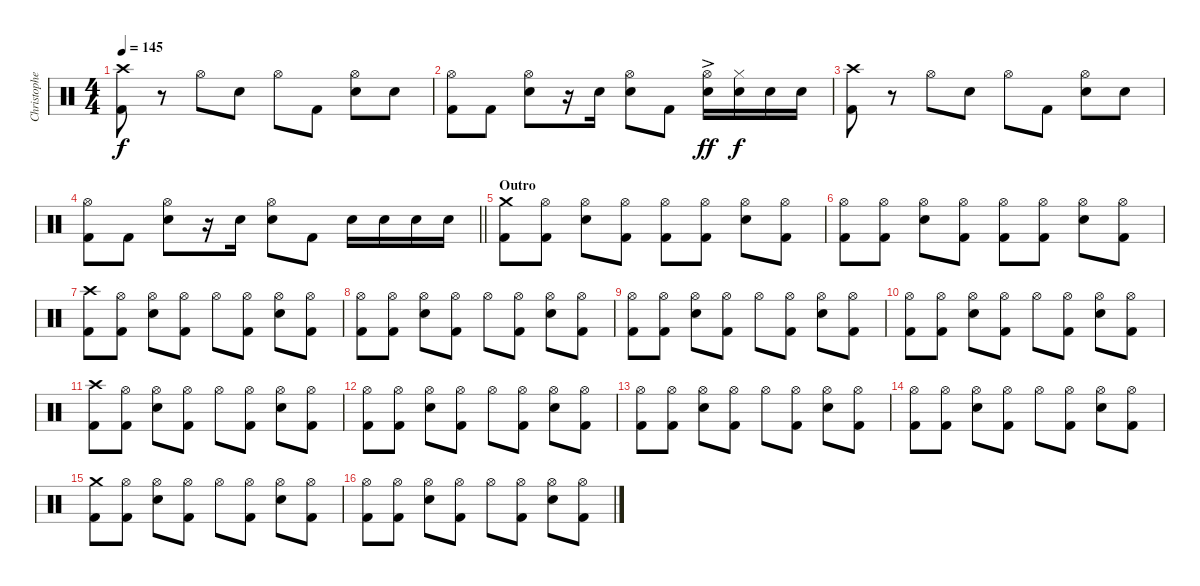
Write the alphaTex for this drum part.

\track ("Christopher - Drums" "Christophe") {instrument percussion}
\staff {score}
\articulation defaults
\ts (4 4)
\tempo 145
\clef neutral
\ks c
("Crash high (hit)" "Kick (hit) 2").8{dy f} r.8 "Hi-Hat (open)".8 "Electric Snare (hit)".8 "Hi-Hat (open)".8 "Kick (hit) 2".8 ("Hi-Hat (open)" "Electric Snare (hit)").8 "Electric Snare (hit)".8 |
("Hi-Hat (open)" "Kick (hit) 2").8 "Kick (hit) 2".8 ("Hi-Hat (open)" "Electric Snare (hit)").8 r.16 "Electric Snare (hit)".16 ("Hi-Hat (open)" "Electric Snare (hit)").8 "Kick (hit) 2".8 ("Hi-Hat (open)"{ac} "Electric Snare (hit)").16{dy ff} ("Hi-Hat (closed)" "Electric Snare (hit)").16{dy f} "Electric Snare (hit)".16 "Electric Snare (hit)".16 |
("Crash high (hit)" "Kick (hit) 2").8 r.8 "Hi-Hat (open)".8 "Electric Snare (hit)".8 "Hi-Hat (open)".8 "Kick (hit) 2".8 ("Hi-Hat (open)" "Electric Snare (hit)").8 "Electric Snare (hit)".8 |
\barLineRight lightlight
("Hi-Hat (open)" "Kick (hit) 2").8 "Kick (hit) 2".8 ("Hi-Hat (open)" "Electric Snare (hit)").8 r.16 "Electric Snare (hit)".16 ("Hi-Hat (open)" "Electric Snare (hit)").8 "Kick (hit) 2".8 "Electric Snare (hit)".16 "Electric Snare (hit)".16 "Electric Snare (hit)".16 "Electric Snare (hit)".16 |
\section ("" "Outro")
("Crash medium (hit)" "Kick (hit) 2").8 ("Hi-Hat (open)" "Kick (hit) 2").8 ("Hi-Hat (open)" "Electric Snare (hit)").8 ("Hi-Hat (open)" "Kick (hit) 2").8 ("Hi-Hat (open)" "Kick (hit) 2").8 ("Hi-Hat (open)" "Kick (hit) 2").8 ("Hi-Hat (open)" "Electric Snare (hit)").8 ("Hi-Hat (open)" "Kick (hit) 2").8 |
("Hi-Hat (open)" "Kick (hit) 2").8 ("Hi-Hat (open)" "Kick (hit) 2").8 ("Hi-Hat (open)" "Electric Snare (hit)").8 ("Hi-Hat (open)" "Kick (hit) 2").8 ("Hi-Hat (open)" "Kick (hit) 2").8 ("Hi-Hat (open)" "Kick (hit) 2").8 ("Hi-Hat (open)" "Electric Snare (hit)").8 ("Hi-Hat (open)" "Kick (hit) 2").8 |
("Crash high (hit)" "Kick (hit) 2").8 ("Hi-Hat (open)" "Kick (hit) 2").8 ("Hi-Hat (open)" "Electric Snare (hit)").8 ("Hi-Hat (open)" "Kick (hit) 2").8 "Hi-Hat (open)".8 ("Hi-Hat (open)" "Kick (hit) 2").8 ("Hi-Hat (open)" "Electric Snare (hit)").8 ("Hi-Hat (open)" "Kick (hit) 2").8 |
("Hi-Hat (open)" "Kick (hit) 2").8 ("Hi-Hat (open)" "Kick (hit) 2").8 ("Hi-Hat (open)" "Electric Snare (hit)").8 ("Hi-Hat (open)" "Kick (hit) 2").8 "Hi-Hat (open)".8 ("Hi-Hat (open)" "Kick (hit) 2").8 ("Hi-Hat (open)" "Electric Snare (hit)").8 ("Hi-Hat (open)" "Kick (hit) 2").8 |
("Hi-Hat (open)" "Kick (hit) 2").8 ("Hi-Hat (open)" "Kick (hit) 2").8 ("Hi-Hat (open)" "Electric Snare (hit)").8 ("Hi-Hat (open)" "Kick (hit) 2").8 "Hi-Hat (open)".8 ("Hi-Hat (open)" "Kick (hit) 2").8 ("Hi-Hat (open)" "Electric Snare (hit)").8 ("Hi-Hat (open)" "Kick (hit) 2").8 |
("Hi-Hat (open)" "Kick (hit) 2").8 ("Hi-Hat (open)" "Kick (hit) 2").8 ("Hi-Hat (open)" "Electric Snare (hit)").8 ("Hi-Hat (open)" "Kick (hit) 2").8 "Hi-Hat (open)".8 ("Hi-Hat (open)" "Kick (hit) 2").8 ("Hi-Hat (open)" "Electric Snare (hit)").8 ("Hi-Hat (open)" "Kick (hit) 2").8 |
("Crash high (hit)" "Kick (hit) 2").8 ("Hi-Hat (open)" "Kick (hit) 2").8 ("Hi-Hat (open)" "Electric Snare (hit)").8 ("Hi-Hat (open)" "Kick (hit) 2").8 "Hi-Hat (open)".8 ("Hi-Hat (open)" "Kick (hit) 2").8 ("Hi-Hat (open)" "Electric Snare (hit)").8 ("Hi-Hat (open)" "Kick (hit) 2").8 |
("Hi-Hat (open)" "Kick (hit) 2").8 ("Hi-Hat (open)" "Kick (hit) 2").8 ("Hi-Hat (open)" "Electric Snare (hit)").8 ("Hi-Hat (open)" "Kick (hit) 2").8 "Hi-Hat (open)".8 ("Hi-Hat (open)" "Kick (hit) 2").8 ("Hi-Hat (open)" "Electric Snare (hit)").8 ("Hi-Hat (open)" "Kick (hit) 2").8 |
("Hi-Hat (open)" "Kick (hit) 2").8 ("Hi-Hat (open)" "Kick (hit) 2").8 ("Hi-Hat (open)" "Electric Snare (hit)").8 ("Hi-Hat (open)" "Kick (hit) 2").8 "Hi-Hat (open)".8 ("Hi-Hat (open)" "Kick (hit) 2").8 ("Hi-Hat (open)" "Electric Snare (hit)").8 ("Hi-Hat (open)" "Kick (hit) 2").8 |
("Hi-Hat (open)" "Kick (hit) 2").8 ("Hi-Hat (open)" "Kick (hit) 2").8 ("Hi-Hat (open)" "Electric Snare (hit)").8 ("Hi-Hat (open)" "Kick (hit) 2").8 "Hi-Hat (open)".8 ("Hi-Hat (open)" "Kick (hit) 2").8 ("Hi-Hat (open)" "Electric Snare (hit)").8 ("Hi-Hat (open)" "Kick (hit) 2").8 |
("Crash medium (hit)" "Kick (hit) 2").8 ("Hi-Hat (open)" "Kick (hit) 2").8 ("Hi-Hat (open)" "Electric Snare (hit)").8 ("Hi-Hat (open)" "Kick (hit) 2").8 "Hi-Hat (open)".8 ("Hi-Hat (open)" "Kick (hit) 2").8 ("Hi-Hat (open)" "Electric Snare (hit)").8 ("Hi-Hat (open)" "Kick (hit) 2").8 |
("Hi-Hat (open)" "Kick (hit) 2").8 ("Hi-Hat (open)" "Kick (hit) 2").8 ("Hi-Hat (open)" "Electric Snare (hit)").8 ("Hi-Hat (open)" "Kick (hit) 2").8 "Hi-Hat (open)".8 ("Hi-Hat (open)" "Kick (hit) 2").8 ("Hi-Hat (open)" "Electric Snare (hit)").8 ("Hi-Hat (open)" "Kick (hit) 2").8
